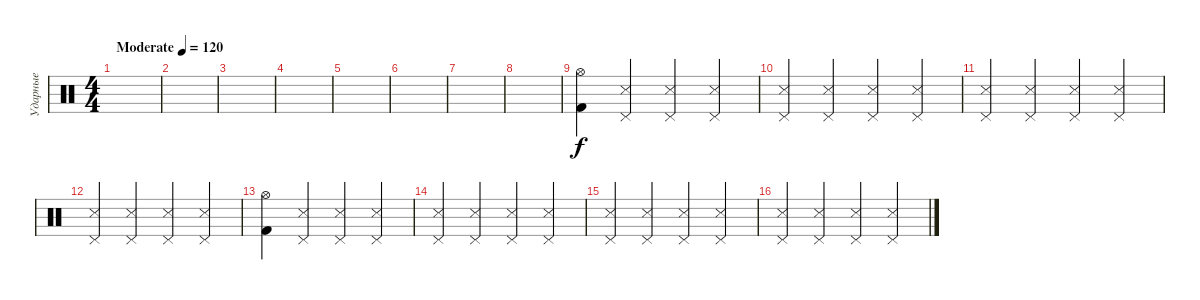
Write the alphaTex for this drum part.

\track ("Ударные" "Ударные") {instrument percussion}
\staff {score}
\articulation defaults
\ts (4 4)
\tempo (120 "Moderate")
\clef neutral
\ks c
|
|
|
|
|
|
|
|
("Hi-Hat (open)" "Kick (hit) 2").4 ("Pedal Hi-Hat (hit)" "Metronome (hit)").4 ("Pedal Hi-Hat (hit)" "Metronome (hit)").4 ("Pedal Hi-Hat (hit)" "Metronome (hit)").4 |
("Pedal Hi-Hat (hit)" "Metronome (hit)").4 ("Pedal Hi-Hat (hit)" "Metronome (hit)").4 ("Pedal Hi-Hat (hit)" "Metronome (hit)").4 ("Pedal Hi-Hat (hit)" "Metronome (hit)").4 |
("Pedal Hi-Hat (hit)" "Metronome (hit)").4 ("Pedal Hi-Hat (hit)" "Metronome (hit)").4 ("Pedal Hi-Hat (hit)" "Metronome (hit)").4 ("Pedal Hi-Hat (hit)" "Metronome (hit)").4 |
("Pedal Hi-Hat (hit)" "Metronome (hit)").4 ("Pedal Hi-Hat (hit)" "Metronome (hit)").4 ("Pedal Hi-Hat (hit)" "Metronome (hit)").4 ("Pedal Hi-Hat (hit)" "Metronome (hit)").4 |
("Hi-Hat (open)" "Kick (hit) 2").4 ("Pedal Hi-Hat (hit)" "Metronome (hit)").4 ("Pedal Hi-Hat (hit)" "Metronome (hit)").4 ("Pedal Hi-Hat (hit)" "Metronome (hit)").4 |
("Pedal Hi-Hat (hit)" "Metronome (hit)").4 ("Pedal Hi-Hat (hit)" "Metronome (hit)").4 ("Pedal Hi-Hat (hit)" "Metronome (hit)").4 ("Pedal Hi-Hat (hit)" "Metronome (hit)").4 |
("Pedal Hi-Hat (hit)" "Metronome (hit)").4 ("Pedal Hi-Hat (hit)" "Metronome (hit)").4 ("Pedal Hi-Hat (hit)" "Metronome (hit)").4 ("Pedal Hi-Hat (hit)" "Metronome (hit)").4 |
("Pedal Hi-Hat (hit)" "Metronome (hit)").4 ("Pedal Hi-Hat (hit)" "Metronome (hit)").4 ("Pedal Hi-Hat (hit)" "Metronome (hit)").4 ("Pedal Hi-Hat (hit)" "Metronome (hit)").4
